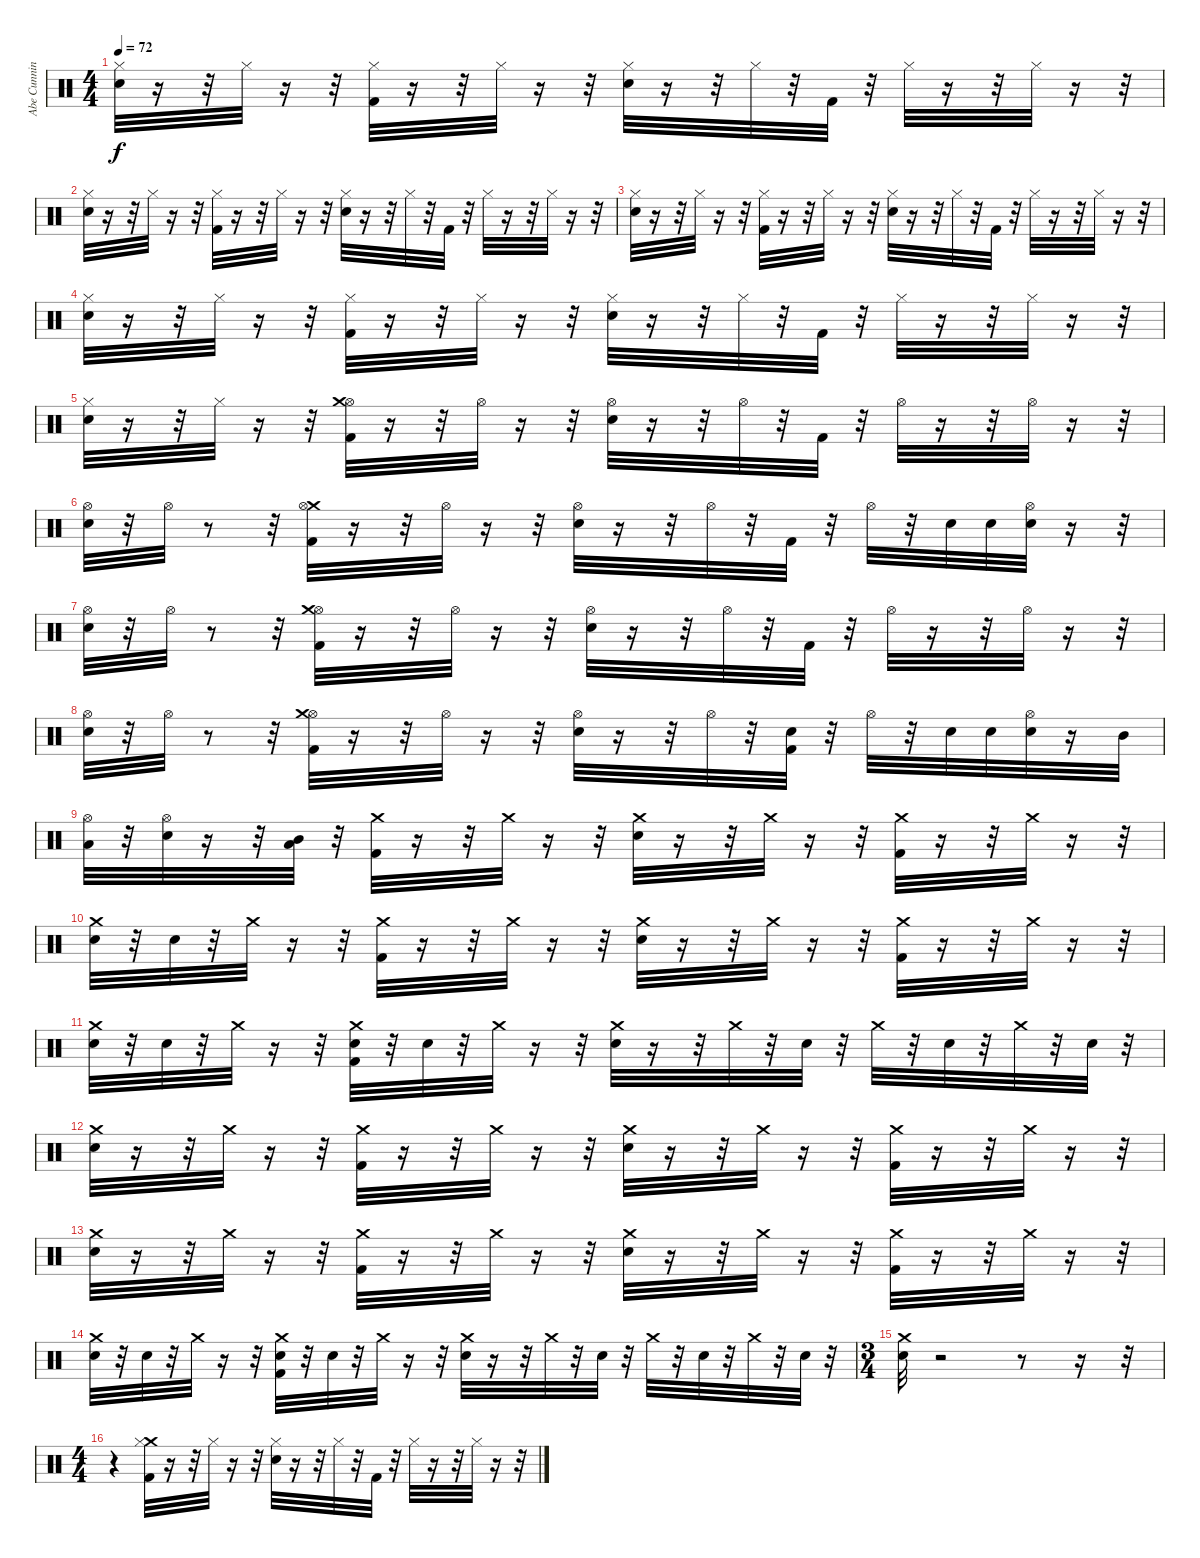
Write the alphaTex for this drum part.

\track ("Abe Cunningham [drums]" "Abe Cunnin") {instrument percussion}
\staff {score}
\articulation defaults
\ts (4 4)
\tempo 72
\clef neutral
\ks c
("Hi-Hat (closed)" "Electric Snare (hit)").32{dy f} r.16 r.32 "Hi-Hat (closed)".32 r.16 r.32 ("Hi-Hat (closed)" "Kick (hit) 2").32 r.16 r.32 "Hi-Hat (closed)".32 r.16 r.32 ("Hi-Hat (closed)" "Electric Snare (hit)").32 r.16 r.32 "Hi-Hat (closed)".32 r.32 "Kick (hit) 2".32 r.32 "Hi-Hat (closed)".32 r.16 r.32 "Hi-Hat (closed)".32 r.16 r.32 |
("Hi-Hat (closed)" "Electric Snare (hit)").32 r.16 r.32 "Hi-Hat (closed)".32 r.16 r.32 ("Hi-Hat (closed)" "Kick (hit) 2").32 r.16 r.32 "Hi-Hat (closed)".32 r.16 r.32 ("Hi-Hat (closed)" "Electric Snare (hit)").32 r.16 r.32 "Hi-Hat (closed)".32 r.32 "Kick (hit) 2".32 r.32 "Hi-Hat (closed)".32 r.16 r.32 "Hi-Hat (closed)".32 r.16 r.32 |
("Hi-Hat (closed)" "Electric Snare (hit)").32 r.16 r.32 "Hi-Hat (closed)".32 r.16 r.32 ("Hi-Hat (closed)" "Kick (hit) 2").32 r.16 r.32 "Hi-Hat (closed)".32 r.16 r.32 ("Hi-Hat (closed)" "Electric Snare (hit)").32 r.16 r.32 "Hi-Hat (closed)".32 r.32 "Kick (hit) 2".32 r.32 "Hi-Hat (closed)".32 r.16 r.32 "Hi-Hat (closed)".32 r.16 r.32 |
("Hi-Hat (closed)" "Electric Snare (hit)").32 r.16 r.32 "Hi-Hat (closed)".32 r.16 r.32 ("Hi-Hat (closed)" "Kick (hit) 2").32 r.16 r.32 "Hi-Hat (closed)".32 r.16 r.32 ("Hi-Hat (closed)" "Electric Snare (hit)").32 r.16 r.32 "Hi-Hat (closed)".32 r.32 "Kick (hit) 2".32 r.32 "Hi-Hat (closed)".32 r.16 r.32 "Hi-Hat (closed)".32 r.16 r.32 |
("Hi-Hat (closed)" "Electric Snare (hit)").32 r.16 r.32 "Hi-Hat (closed)".32 r.16 r.32 ("Hi-Hat (open)" "Crash medium (hit)" "Kick (hit) 2").32 r.16 r.32 "Hi-Hat (open)".32 r.16 r.32 ("Hi-Hat (open)" "Electric Snare (hit)").32 r.16 r.32 "Hi-Hat (open)".32 r.32 "Kick (hit) 2".32 r.32 "Hi-Hat (open)".32 r.16 r.32 "Hi-Hat (open)".32 r.16 r.32 |
("Hi-Hat (open)" "Electric Snare (hit)").32 r.32 "Hi-Hat (open)".32 r.8 r.32 ("Crash medium (hit)" "Hi-Hat (open)" "Kick (hit) 2").32 r.16 r.32 "Hi-Hat (open)".32 r.16 r.32 ("Hi-Hat (open)" "Electric Snare (hit)").32 r.16 r.32 "Hi-Hat (open)".32 r.32 "Kick (hit) 2".32 r.32 "Hi-Hat (open)".32 r.32 "Electric Snare (hit)".32 "Electric Snare (hit)".32 ("Hi-Hat (open)" "Electric Snare (hit)").32 r.16 r.32 |
("Hi-Hat (open)" "Electric Snare (hit)").32 r.32 "Hi-Hat (open)".32 r.8 r.32 ("Hi-Hat (open)" "Crash medium (hit)" "Kick (hit) 2").32 r.16 r.32 "Hi-Hat (open)".32 r.16 r.32 ("Hi-Hat (open)" "Electric Snare (hit)").32 r.16 r.32 "Hi-Hat (open)".32 r.32 "Kick (hit) 2".32 r.32 "Hi-Hat (open)".32 r.16 r.32 "Hi-Hat (open)".32 r.16 r.32 |
("Hi-Hat (open)" "Electric Snare (hit)").32 r.32 "Hi-Hat (open)".32 r.8 r.32 ("Hi-Hat (open)" "Crash medium (hit)" "Kick (hit) 2").32 r.16 r.32 "Hi-Hat (open)".32 r.16 r.32 ("Hi-Hat (open)" "Electric Snare (hit)").32 r.16 r.32 "Hi-Hat (open)".32 r.32 ("Electric Snare (hit)" "Kick (hit) 2").32 r.32 "Hi-Hat (open)".32 r.32 "Electric Snare (hit)".32 "Electric Snare (hit)".32 ("Hi-Hat (open)" "Electric Snare (hit)").32 r.16 "Mid Tom (hit)".32 |
("Low Tom (hit)" "Hi-Hat (open)").32 r.32 ("Hi-Hat (open)" "Electric Snare (hit)").32 r.16 r.32 ("Mid Tom (hit)" "Low Tom (hit)").32 r.32 ("Crash medium (hit)" "Kick (hit) 2").32 r.16 r.32 "Crash medium (hit)".32 r.16 r.32 ("Crash medium (hit)" "Electric Snare (hit)").32 r.16 r.32 "Crash medium (hit)".32 r.16 r.32 ("Crash medium (hit)" "Kick (hit) 2").32 r.16 r.32 "Crash medium (hit)".32 r.16 r.32 |
("Crash medium (hit)" "Electric Snare (hit)").32 r.32 "Electric Snare (hit)".32 r.32 "Crash medium (hit)".32 r.16 r.32 ("Crash medium (hit)" "Kick (hit) 2").32 r.16 r.32 "Crash medium (hit)".32 r.16 r.32 ("Crash medium (hit)" "Electric Snare (hit)").32 r.16 r.32 "Crash medium (hit)".32 r.16 r.32 ("Crash medium (hit)" "Kick (hit) 2").32 r.16 r.32 "Crash medium (hit)".32 r.16 r.32 |
("Crash medium (hit)" "Electric Snare (hit)").32 r.32 "Electric Snare (hit)".32 r.32 "Crash medium (hit)".32 r.16 r.32 ("Crash medium (hit)" "Electric Snare (hit)" "Kick (hit) 2").32 r.32 "Electric Snare (hit)".32 r.32 "Crash medium (hit)".32 r.16 r.32 ("Crash medium (hit)" "Electric Snare (hit)").32 r.16 r.32 "Crash medium (hit)".32 r.32 "Electric Snare (hit)".32 r.32 "Crash medium (hit)".32 r.32 "Electric Snare (hit)".32 r.32 "Crash medium (hit)".32 r.32 "Electric Snare (hit)".32 r.32 |
("Crash medium (hit)" "Electric Snare (hit)").32 r.16 r.32 "Crash medium (hit)".32 r.16 r.32 ("Crash medium (hit)" "Kick (hit) 2").32 r.16 r.32 "Crash medium (hit)".32 r.16 r.32 ("Crash medium (hit)" "Electric Snare (hit)").32 r.16 r.32 "Crash medium (hit)".32 r.16 r.32 ("Crash medium (hit)" "Kick (hit) 2").32 r.16 r.32 "Crash medium (hit)".32 r.16 r.32 |
("Crash medium (hit)" "Electric Snare (hit)").32 r.16 r.32 "Crash medium (hit)".32 r.16 r.32 ("Crash medium (hit)" "Kick (hit) 2").32 r.16 r.32 "Crash medium (hit)".32 r.16 r.32 ("Crash medium (hit)" "Electric Snare (hit)").32 r.16 r.32 "Crash medium (hit)".32 r.16 r.32 ("Crash medium (hit)" "Kick (hit) 2").32 r.16 r.32 "Crash medium (hit)".32 r.16 r.32 |
("Crash medium (hit)" "Electric Snare (hit)").32 r.32 "Electric Snare (hit)".32 r.32 "Crash medium (hit)".32 r.16 r.32 ("Crash medium (hit)" "Electric Snare (hit)" "Kick (hit) 2").32 r.32 "Electric Snare (hit)".32 r.32 "Crash medium (hit)".32 r.16 r.32 ("Crash medium (hit)" "Electric Snare (hit)").32 r.16 r.32 "Crash medium (hit)".32 r.32 "Electric Snare (hit)".32 r.32 "Crash medium (hit)".32 r.32 "Electric Snare (hit)".32 r.32 "Crash medium (hit)".32 r.32 "Electric Snare (hit)".32 r.32 |
\ts (3 4)
("Crash medium (hit)" "Electric Snare (hit)").32 r.2 r.8 r.16 r.32 |
\ts (4 4)
r.4 ("Crash medium (hit)" "Hi-Hat (closed)" "Kick (hit) 2").32 r.16 r.32 "Hi-Hat (closed)".32 r.16 r.32 ("Hi-Hat (closed)" "Electric Snare (hit)").32 r.16 r.32 "Hi-Hat (closed)".32 r.32 "Kick (hit) 2".32 r.32 "Hi-Hat (closed)".32 r.16 r.32 "Hi-Hat (closed)".32 r.16 r.32
